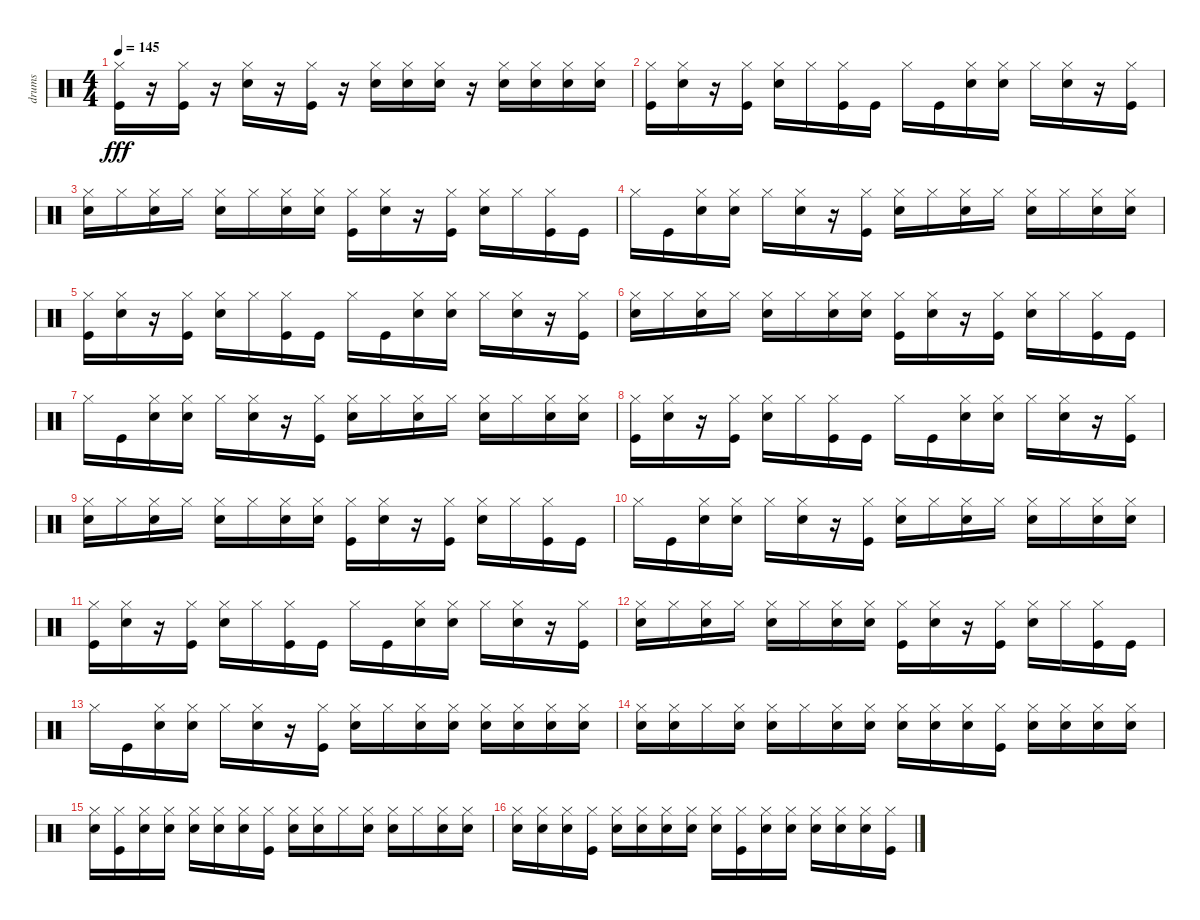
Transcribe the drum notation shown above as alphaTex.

\track ("drums" "drums") {instrument percussion}
\staff {score}
\articulation defaults
\ts (4 4)
\tempo 145
\clef neutral
\ks c
("Kick (hit)" "Hi-Hat (closed)").16{dy fff} r.16 ("Kick (hit)" "Hi-Hat (closed)").16 r.16 ("Snare (hit) 2" "Hi-Hat (closed)").16 r.16 ("Kick (hit)" "Hi-Hat (closed)").16 r.16 ("Snare (hit) 2" "Hi-Hat (closed)").16 ("Snare (hit) 2" "Hi-Hat (closed)").16 ("Snare (hit) 2" "Hi-Hat (closed)").16 r.16 ("Snare (hit) 2" "Hi-Hat (closed)").16 ("Snare (hit) 2" "Hi-Hat (closed)").16 ("Snare (hit) 2" "Hi-Hat (closed)").16 ("Snare (hit) 2" "Hi-Hat (closed)").16 |
("Kick (hit)" "Hi-Hat (closed)").16 ("Snare (hit) 2" "Hi-Hat (closed)").16 r.16 ("Kick (hit)" "Hi-Hat (closed)").16 ("Snare (hit) 2" "Hi-Hat (closed)").16 "Hi-Hat (closed)".16 ("Kick (hit)" "Hi-Hat (closed)").16 "Kick (hit)".16 "Hi-Hat (closed)".16 "Kick (hit)".16 ("Snare (hit) 2" "Hi-Hat (closed)").16 ("Snare (hit) 2" "Hi-Hat (closed)").16 "Hi-Hat (closed)".16 ("Snare (hit) 2" "Hi-Hat (closed)").16 r.16 ("Kick (hit)" "Hi-Hat (closed)").16 |
("Snare (hit) 2" "Hi-Hat (closed)").16 "Hi-Hat (closed)".16 ("Snare (hit) 2" "Hi-Hat (closed)").16 "Hi-Hat (closed)".16 ("Snare (hit) 2" "Hi-Hat (closed)").16 "Hi-Hat (closed)".16 ("Snare (hit) 2" "Hi-Hat (closed)").16 ("Snare (hit) 2" "Hi-Hat (closed)").16 ("Kick (hit)" "Hi-Hat (closed)").16 ("Snare (hit) 2" "Hi-Hat (closed)").16 r.16 ("Kick (hit)" "Hi-Hat (closed)").16 ("Snare (hit) 2" "Hi-Hat (closed)").16 "Hi-Hat (closed)".16 ("Kick (hit)" "Hi-Hat (closed)").16 "Kick (hit)".16 |
"Hi-Hat (closed)".16 "Kick (hit)".16 ("Snare (hit) 2" "Hi-Hat (closed)").16 ("Snare (hit) 2" "Hi-Hat (closed)").16 "Hi-Hat (closed)".16 ("Snare (hit) 2" "Hi-Hat (closed)").16 r.16 ("Kick (hit)" "Hi-Hat (closed)").16 ("Snare (hit) 2" "Hi-Hat (closed)").16 "Hi-Hat (closed)".16 ("Snare (hit) 2" "Hi-Hat (closed)").16 "Hi-Hat (closed)".16 ("Snare (hit) 2" "Hi-Hat (closed)").16 "Hi-Hat (closed)".16 ("Snare (hit) 2" "Hi-Hat (closed)").16 ("Snare (hit) 2" "Hi-Hat (closed)").16 |
("Kick (hit)" "Hi-Hat (closed)").16 ("Snare (hit) 2" "Hi-Hat (closed)").16 r.16 ("Kick (hit)" "Hi-Hat (closed)").16 ("Snare (hit) 2" "Hi-Hat (closed)").16 "Hi-Hat (closed)".16 ("Kick (hit)" "Hi-Hat (closed)").16 "Kick (hit)".16 "Hi-Hat (closed)".16 "Kick (hit)".16 ("Snare (hit) 2" "Hi-Hat (closed)").16 ("Snare (hit) 2" "Hi-Hat (closed)").16 "Hi-Hat (closed)".16 ("Snare (hit) 2" "Hi-Hat (closed)").16 r.16 ("Kick (hit)" "Hi-Hat (closed)").16 |
("Snare (hit) 2" "Hi-Hat (closed)").16 "Hi-Hat (closed)".16 ("Snare (hit) 2" "Hi-Hat (closed)").16 "Hi-Hat (closed)".16 ("Snare (hit) 2" "Hi-Hat (closed)").16 "Hi-Hat (closed)".16 ("Snare (hit) 2" "Hi-Hat (closed)").16 ("Snare (hit) 2" "Hi-Hat (closed)").16 ("Kick (hit)" "Hi-Hat (closed)").16 ("Snare (hit) 2" "Hi-Hat (closed)").16 r.16 ("Kick (hit)" "Hi-Hat (closed)").16 ("Snare (hit) 2" "Hi-Hat (closed)").16 "Hi-Hat (closed)".16 ("Kick (hit)" "Hi-Hat (closed)").16 "Kick (hit)".16 |
"Hi-Hat (closed)".16 "Kick (hit)".16 ("Snare (hit) 2" "Hi-Hat (closed)").16 ("Snare (hit) 2" "Hi-Hat (closed)").16 "Hi-Hat (closed)".16 ("Snare (hit) 2" "Hi-Hat (closed)").16 r.16 ("Kick (hit)" "Hi-Hat (closed)").16 ("Snare (hit) 2" "Hi-Hat (closed)").16 "Hi-Hat (closed)".16 ("Snare (hit) 2" "Hi-Hat (closed)").16 "Hi-Hat (closed)".16 ("Snare (hit) 2" "Hi-Hat (closed)").16 "Hi-Hat (closed)".16 ("Snare (hit) 2" "Hi-Hat (closed)").16 ("Snare (hit) 2" "Hi-Hat (closed)").16 |
("Kick (hit)" "Hi-Hat (closed)").16 ("Snare (hit) 2" "Hi-Hat (closed)").16 r.16 ("Kick (hit)" "Hi-Hat (closed)").16 ("Snare (hit) 2" "Hi-Hat (closed)").16 "Hi-Hat (closed)".16 ("Kick (hit)" "Hi-Hat (closed)").16 "Kick (hit)".16 "Hi-Hat (closed)".16 "Kick (hit)".16 ("Snare (hit) 2" "Hi-Hat (closed)").16 ("Snare (hit) 2" "Hi-Hat (closed)").16 "Hi-Hat (closed)".16 ("Snare (hit) 2" "Hi-Hat (closed)").16 r.16 ("Kick (hit)" "Hi-Hat (closed)").16 |
("Snare (hit) 2" "Hi-Hat (closed)").16 "Hi-Hat (closed)".16 ("Snare (hit) 2" "Hi-Hat (closed)").16 "Hi-Hat (closed)".16 ("Snare (hit) 2" "Hi-Hat (closed)").16 "Hi-Hat (closed)".16 ("Snare (hit) 2" "Hi-Hat (closed)").16 ("Snare (hit) 2" "Hi-Hat (closed)").16 ("Kick (hit)" "Hi-Hat (closed)").16 ("Snare (hit) 2" "Hi-Hat (closed)").16 r.16 ("Kick (hit)" "Hi-Hat (closed)").16 ("Snare (hit) 2" "Hi-Hat (closed)").16 "Hi-Hat (closed)".16 ("Kick (hit)" "Hi-Hat (closed)").16 "Kick (hit)".16 |
"Hi-Hat (closed)".16 "Kick (hit)".16 ("Snare (hit) 2" "Hi-Hat (closed)").16 ("Snare (hit) 2" "Hi-Hat (closed)").16 "Hi-Hat (closed)".16 ("Snare (hit) 2" "Hi-Hat (closed)").16 r.16 ("Kick (hit)" "Hi-Hat (closed)").16 ("Snare (hit) 2" "Hi-Hat (closed)").16 "Hi-Hat (closed)".16 ("Snare (hit) 2" "Hi-Hat (closed)").16 "Hi-Hat (closed)".16 ("Snare (hit) 2" "Hi-Hat (closed)").16 "Hi-Hat (closed)".16 ("Snare (hit) 2" "Hi-Hat (closed)").16 ("Snare (hit) 2" "Hi-Hat (closed)").16 |
("Kick (hit)" "Hi-Hat (closed)").16 ("Snare (hit) 2" "Hi-Hat (closed)").16 r.16 ("Kick (hit)" "Hi-Hat (closed)").16 ("Snare (hit) 2" "Hi-Hat (closed)").16 "Hi-Hat (closed)".16 ("Kick (hit)" "Hi-Hat (closed)").16 "Kick (hit)".16 "Hi-Hat (closed)".16 "Kick (hit)".16 ("Snare (hit) 2" "Hi-Hat (closed)").16 ("Snare (hit) 2" "Hi-Hat (closed)").16 "Hi-Hat (closed)".16 ("Snare (hit) 2" "Hi-Hat (closed)").16 r.16 ("Kick (hit)" "Hi-Hat (closed)").16 |
("Snare (hit) 2" "Hi-Hat (closed)").16 "Hi-Hat (closed)".16 ("Snare (hit) 2" "Hi-Hat (closed)").16 "Hi-Hat (closed)".16 ("Snare (hit) 2" "Hi-Hat (closed)").16 "Hi-Hat (closed)".16 ("Snare (hit) 2" "Hi-Hat (closed)").16 ("Snare (hit) 2" "Hi-Hat (closed)").16 ("Kick (hit)" "Hi-Hat (closed)").16 ("Snare (hit) 2" "Hi-Hat (closed)").16 r.16 ("Kick (hit)" "Hi-Hat (closed)").16 ("Snare (hit) 2" "Hi-Hat (closed)").16 "Hi-Hat (closed)".16 ("Kick (hit)" "Hi-Hat (closed)").16 "Kick (hit)".16 |
"Hi-Hat (closed)".16 "Kick (hit)".16 ("Snare (hit) 2" "Hi-Hat (closed)").16 ("Snare (hit) 2" "Hi-Hat (closed)").16 "Hi-Hat (closed)".16 ("Snare (hit) 2" "Hi-Hat (closed)").16 r.16 ("Kick (hit)" "Hi-Hat (closed)").16 ("Snare (hit) 2" "Hi-Hat (closed)").16 "Hi-Hat (closed)".16 ("Snare (hit) 2" "Hi-Hat (closed)").16 ("Snare (hit) 2" "Hi-Hat (closed)").16 ("Snare (hit) 2" "Hi-Hat (closed)").16 ("Snare (hit) 2" "Hi-Hat (closed)").16 ("Snare (hit) 2" "Hi-Hat (closed)").16 ("Snare (hit) 2" "Hi-Hat (closed)").16 |
("Snare (hit) 2" "Hi-Hat (closed)").16 ("Snare (hit) 2" "Hi-Hat (closed)").16 "Hi-Hat (closed)".16 ("Snare (hit) 2" "Hi-Hat (closed)").16 ("Snare (hit) 2" "Hi-Hat (closed)").16 "Hi-Hat (closed)".16 ("Snare (hit) 2" "Hi-Hat (closed)").16 ("Snare (hit) 2" "Hi-Hat (closed)").16 ("Snare (hit) 2" "Hi-Hat (closed)").16 ("Snare (hit) 2" "Hi-Hat (closed)").16 ("Snare (hit) 2" "Hi-Hat (closed)").16 ("Kick (hit)" "Hi-Hat (closed)").16 ("Snare (hit) 2" "Hi-Hat (closed)").16 ("Snare (hit) 2" "Hi-Hat (closed)").16 ("Snare (hit) 2" "Hi-Hat (closed)").16 ("Snare (hit) 2" "Hi-Hat (closed)").16 |
("Snare (hit) 2" "Hi-Hat (closed)").16 ("Kick (hit)" "Hi-Hat (closed)").16 ("Snare (hit) 2" "Hi-Hat (closed)").16 ("Snare (hit) 2" "Hi-Hat (closed)").16 ("Snare (hit) 2" "Hi-Hat (closed)").16 ("Snare (hit) 2" "Hi-Hat (closed)").16 ("Snare (hit) 2" "Hi-Hat (closed)").16 ("Kick (hit)" "Hi-Hat (closed)").16 ("Snare (hit) 2" "Hi-Hat (closed)").16 ("Snare (hit) 2" "Hi-Hat (closed)").16 "Hi-Hat (closed)".16 ("Snare (hit) 2" "Hi-Hat (closed)").16 ("Snare (hit) 2" "Hi-Hat (closed)").16 "Hi-Hat (closed)".16 ("Snare (hit) 2" "Hi-Hat (closed)").16 ("Snare (hit) 2" "Hi-Hat (closed)").16 |
("Snare (hit) 2" "Hi-Hat (closed)").16 ("Snare (hit) 2" "Hi-Hat (closed)").16 ("Snare (hit) 2" "Hi-Hat (closed)").16 ("Kick (hit)" "Hi-Hat (closed)").16 ("Snare (hit) 2" "Hi-Hat (closed)").16 ("Snare (hit) 2" "Hi-Hat (closed)").16 ("Snare (hit) 2" "Hi-Hat (closed)").16 ("Snare (hit) 2" "Hi-Hat (closed)").16 ("Snare (hit) 2" "Hi-Hat (closed)").16 ("Kick (hit)" "Hi-Hat (closed)").16 ("Snare (hit) 2" "Hi-Hat (closed)").16 ("Snare (hit) 2" "Hi-Hat (closed)").16 ("Snare (hit) 2" "Hi-Hat (closed)").16 ("Snare (hit) 2" "Hi-Hat (closed)").16 ("Snare (hit) 2" "Hi-Hat (closed)").16 ("Kick (hit)" "Hi-Hat (closed)").16
